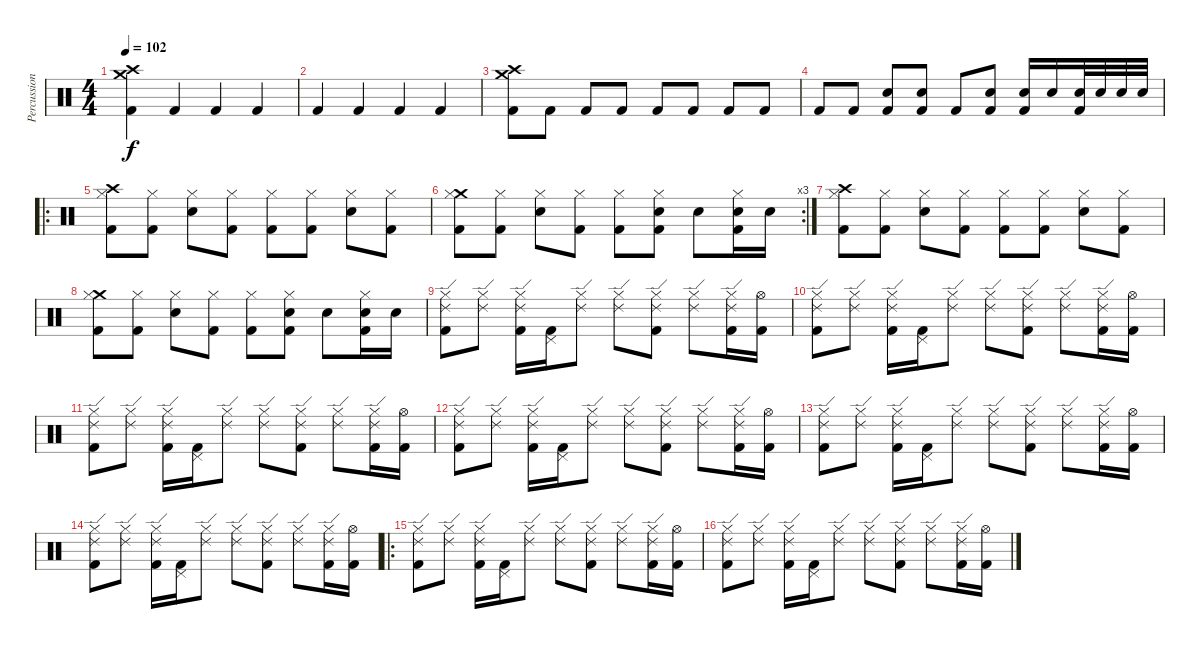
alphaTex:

\track ("Percussion" "Percussion") {instrument percussion}
\staff {score}
\articulation defaults
\ts (4 4)
\tempo 102
\clef neutral
\ks c
("Crash high (hit)" "Crash medium (hit)" "Kick (hit) 2").4{dy f} "Kick (hit) 2".4 "Kick (hit) 2".4 "Kick (hit) 2".4 |
"Kick (hit) 2".4 "Kick (hit) 2".4 "Kick (hit) 2".4 "Kick (hit) 2".4 |
("Crash high (hit)" "Crash medium (hit)" "Kick (hit) 2").8 "Kick (hit) 2".8 "Kick (hit) 2".8 "Kick (hit) 2".8 "Kick (hit) 2".8 "Kick (hit) 2".8 "Kick (hit) 2".8 "Kick (hit) 2".8 |
"Kick (hit) 2".8 "Kick (hit) 2".8 ("Snare (hit) 2" "Kick (hit) 2").8 ("Snare (hit) 2" "Kick (hit) 2").8 "Kick (hit) 2".8 ("Snare (hit) 2" "Kick (hit) 2").8 ("Snare (hit) 2" "Kick (hit) 2").16 "Snare (hit) 2".16 ("Snare (hit) 2" "Kick (hit) 2").32 "Snare (hit) 2".32 "Snare (hit) 2".32 "Snare (hit) 2".32 |
\ro
("Crash high (hit)" "Hi-Hat (closed)" "Kick (hit) 2").8 ("Hi-Hat (closed)" "Kick (hit) 2").8 ("Snare (hit) 2" "Hi-Hat (closed)").8 ("Hi-Hat (closed)" "Kick (hit) 2").8 ("Hi-Hat (closed)" "Kick (hit) 2").8 ("Hi-Hat (closed)" "Kick (hit) 2").8 ("Snare (hit) 2" "Hi-Hat (closed)").8 ("Hi-Hat (closed)" "Kick (hit) 2").8 |
\rc 3
("Crash medium (hit)" "Hi-Hat (closed)" "Kick (hit) 2").8 ("Hi-Hat (closed)" "Kick (hit) 2").8 ("Snare (hit) 2" "Hi-Hat (closed)").8 ("Hi-Hat (closed)" "Kick (hit) 2").8 ("Hi-Hat (closed)" "Kick (hit) 2").8 ("Snare (hit) 2" "Hi-Hat (closed)" "Kick (hit) 2").8 "Snare (hit) 2".8 ("Snare (hit) 2" "Hi-Hat (closed)" "Kick (hit) 2").16 "Snare (hit) 2".16 |
("Crash high (hit)" "Hi-Hat (closed)" "Kick (hit) 2").8 ("Hi-Hat (closed)" "Kick (hit) 2").8 ("Snare (hit) 2" "Hi-Hat (closed)").8 ("Hi-Hat (closed)" "Kick (hit) 2").8 ("Hi-Hat (closed)" "Kick (hit) 2").8 ("Hi-Hat (closed)" "Kick (hit) 2").8 ("Snare (hit) 2" "Hi-Hat (closed)").8 ("Hi-Hat (closed)" "Kick (hit) 2").8 |
("Crash medium (hit)" "Hi-Hat (closed)" "Kick (hit) 2").8 ("Hi-Hat (closed)" "Kick (hit) 2").8 ("Snare (hit) 2" "Hi-Hat (closed)").8 ("Hi-Hat (closed)" "Kick (hit) 2").8 ("Hi-Hat (closed)" "Kick (hit) 2").8 ("Snare (hit) 2" "Hi-Hat (closed)" "Kick (hit) 2").8 "Snare (hit) 2".8 ("Snare (hit) 2" "Hi-Hat (closed)" "Kick (hit) 2").16 "Snare (hit) 2".16 |
("Ride (edge) 2" "Hi-Hat (closed)" "Kick (hit) 2").8 ("Ride (edge) 2" "Hi-Hat (closed)").8 ("Ride (edge) 2" "Hi-Hat (closed)" "Kick (hit) 2").16 ("Pedal Hi-Hat (hit)" "Kick (hit) 2").16 ("Ride (edge) 2" "Hi-Hat (closed)").8 ("Ride (edge) 2" "Hi-Hat (closed)").8 ("Ride (edge) 2" "Hi-Hat (closed)" "Kick (hit) 2").8 ("Ride (edge) 2" "Hi-Hat (closed)").8 ("Ride (edge) 2" "Hi-Hat (closed)" "Kick (hit) 2").16 ("Hi-Hat (open)" "Kick (hit) 2").16 |
("Ride (edge) 2" "Hi-Hat (closed)" "Kick (hit) 2").8 ("Ride (edge) 2" "Hi-Hat (closed)").8 ("Ride (edge) 2" "Hi-Hat (closed)" "Kick (hit) 2").16 ("Pedal Hi-Hat (hit)" "Kick (hit) 2").16 ("Ride (edge) 2" "Hi-Hat (closed)").8 ("Ride (edge) 2" "Hi-Hat (closed)").8 ("Ride (edge) 2" "Hi-Hat (closed)" "Kick (hit) 2").8 ("Ride (edge) 2" "Hi-Hat (closed)").8 ("Ride (edge) 2" "Hi-Hat (closed)" "Kick (hit) 2").16 ("Hi-Hat (open)" "Kick (hit) 2").16 |
("Ride (edge) 2" "Hi-Hat (closed)" "Kick (hit) 2").8 ("Ride (edge) 2" "Hi-Hat (closed)").8 ("Ride (edge) 2" "Hi-Hat (closed)" "Kick (hit) 2").16 ("Pedal Hi-Hat (hit)" "Kick (hit) 2").16 ("Ride (edge) 2" "Hi-Hat (closed)").8 ("Ride (edge) 2" "Hi-Hat (closed)").8 ("Ride (edge) 2" "Hi-Hat (closed)" "Kick (hit) 2").8 ("Ride (edge) 2" "Hi-Hat (closed)").8 ("Ride (edge) 2" "Hi-Hat (closed)" "Kick (hit) 2").16 ("Hi-Hat (open)" "Kick (hit) 2").16 |
("Ride (edge) 2" "Hi-Hat (closed)" "Kick (hit) 2").8 ("Ride (edge) 2" "Hi-Hat (closed)").8 ("Ride (edge) 2" "Hi-Hat (closed)" "Kick (hit) 2").16 ("Pedal Hi-Hat (hit)" "Kick (hit) 2").16 ("Ride (edge) 2" "Hi-Hat (closed)").8 ("Ride (edge) 2" "Hi-Hat (closed)").8 ("Ride (edge) 2" "Hi-Hat (closed)" "Kick (hit) 2").8 ("Ride (edge) 2" "Hi-Hat (closed)").8 ("Ride (edge) 2" "Hi-Hat (closed)" "Kick (hit) 2").16 ("Hi-Hat (open)" "Kick (hit) 2").16 |
("Ride (edge) 2" "Hi-Hat (closed)" "Kick (hit) 2").8 ("Ride (edge) 2" "Hi-Hat (closed)").8 ("Ride (edge) 2" "Hi-Hat (closed)" "Kick (hit) 2").16 ("Pedal Hi-Hat (hit)" "Kick (hit) 2").16 ("Ride (edge) 2" "Hi-Hat (closed)").8 ("Ride (edge) 2" "Hi-Hat (closed)").8 ("Ride (edge) 2" "Hi-Hat (closed)" "Kick (hit) 2").8 ("Ride (edge) 2" "Hi-Hat (closed)").8 ("Ride (edge) 2" "Hi-Hat (closed)" "Kick (hit) 2").16 ("Hi-Hat (open)" "Kick (hit) 2").16 |
("Ride (edge) 2" "Hi-Hat (closed)" "Kick (hit) 2").8 ("Ride (edge) 2" "Hi-Hat (closed)").8 ("Ride (edge) 2" "Hi-Hat (closed)" "Kick (hit) 2").16 ("Pedal Hi-Hat (hit)" "Kick (hit) 2").16 ("Ride (edge) 2" "Hi-Hat (closed)").8 ("Ride (edge) 2" "Hi-Hat (closed)").8 ("Ride (edge) 2" "Hi-Hat (closed)" "Kick (hit) 2").8 ("Ride (edge) 2" "Hi-Hat (closed)").8 ("Ride (edge) 2" "Hi-Hat (closed)" "Kick (hit) 2").16 ("Hi-Hat (open)" "Kick (hit) 2").16 |
\ro
("Ride (edge) 2" "Hi-Hat (closed)" "Kick (hit) 2").8 ("Ride (edge) 2" "Hi-Hat (closed)").8 ("Ride (edge) 2" "Hi-Hat (closed)" "Kick (hit) 2").16 ("Pedal Hi-Hat (hit)" "Kick (hit) 2").16 ("Ride (edge) 2" "Hi-Hat (closed)").8 ("Ride (edge) 2" "Hi-Hat (closed)").8 ("Ride (edge) 2" "Hi-Hat (closed)" "Kick (hit) 2").8 ("Ride (edge) 2" "Hi-Hat (closed)").8 ("Ride (edge) 2" "Hi-Hat (closed)" "Kick (hit) 2").16 ("Hi-Hat (open)" "Kick (hit) 2").16 |
("Ride (edge) 2" "Hi-Hat (closed)" "Kick (hit) 2").8 ("Ride (edge) 2" "Hi-Hat (closed)").8 ("Ride (edge) 2" "Hi-Hat (closed)" "Kick (hit) 2").16 ("Pedal Hi-Hat (hit)" "Kick (hit) 2").16 ("Ride (edge) 2" "Hi-Hat (closed)").8 ("Ride (edge) 2" "Hi-Hat (closed)").8 ("Ride (edge) 2" "Hi-Hat (closed)" "Kick (hit) 2").8 ("Ride (edge) 2" "Hi-Hat (closed)").8 ("Ride (edge) 2" "Hi-Hat (closed)" "Kick (hit) 2").16 ("Hi-Hat (open)" "Kick (hit) 2").16
